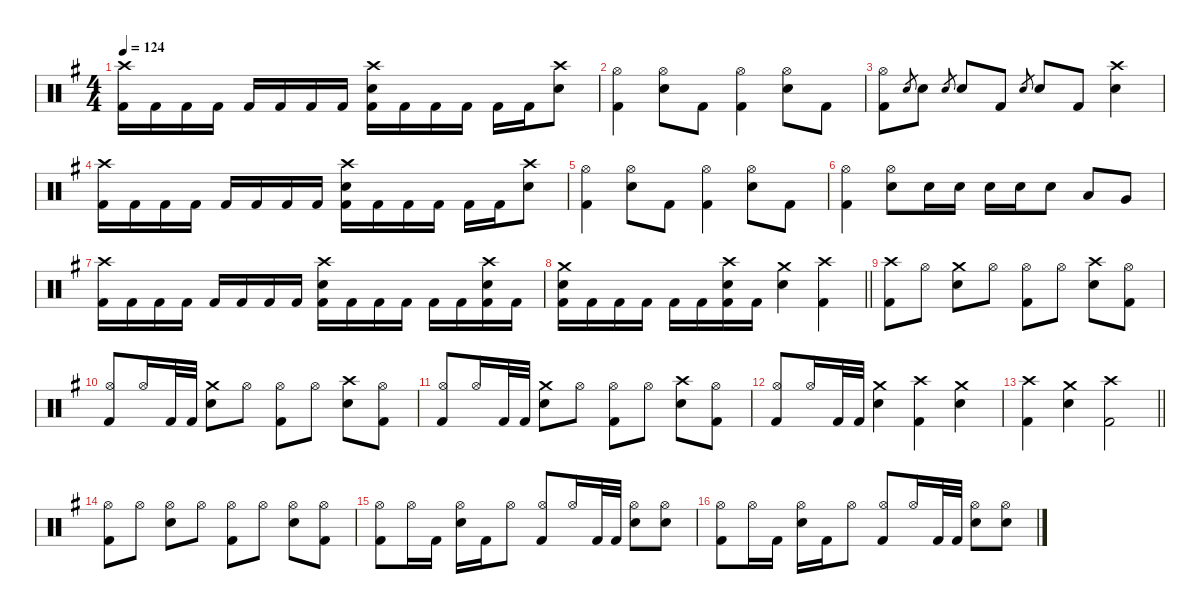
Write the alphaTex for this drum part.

\defaultSystemsLayout 4
\hideDynamics
\bracketExtendMode nobrackets
\singleTrackTrackNamePolicy hidden
\multiTrackTrackNamePolicy hidden
\otherSystemsTrackNameOrientation horizontal
\track ("Drums" "drm.") {defaultSystemsLayout 4 instrument percussion}
\staff {score}
\articulation defaults
\ts (4 4)
\tempo 124
\clef neutral
\ks g
("Crash high (hit)"{acc forcenatural} "Kick (hit) 2"{acc forcenatural}).16{dy mf beam Down} "Kick (hit) 2"{acc forcenatural}.16{dy ff beam Down} "Kick (hit) 2"{acc forcenatural}.16{beam Down} "Kick (hit) 2"{acc forcenatural}.16{beam Down} "Kick (hit) 2"{acc forcenatural}.16{beam Up} "Kick (hit) 2"{acc forcenatural}.16{beam Up} "Kick (hit) 2"{acc forcenatural}.16{beam Up} "Kick (hit) 2"{acc forcenatural}.16{beam Up} ("Crash high (hit)"{acc forcenatural} "Snare (hit) 2"{acc forcenatural} "Kick (hit) 2"{acc forcenatural}).16{dy mf beam Down} "Kick (hit) 2"{acc forcenatural}.16{dy ff beam Down} "Kick (hit) 2"{acc forcenatural}.16{beam Down} "Kick (hit) 2"{acc forcenatural}.16{beam Down} "Kick (hit) 2"{acc forcenatural}.16{beam Down} "Kick (hit) 2"{acc forcenatural}.16{beam Down} ("Crash high (hit)"{acc forcenatural} "Snare (hit) 2"{acc forcenatural}).8{dy mf beam Down} |
("Hi-Hat (open)"{acc forcenatural} "Kick (hit) 2"{acc forcenatural}).4{beam Down} ("Hi-Hat (open)"{acc forcenatural} "Snare (hit) 2"{acc forcenatural}).8{beam Down} "Kick (hit) 2"{acc forcenatural}.8{dy ff beam Down} ("Hi-Hat (open)"{acc forcenatural} "Kick (hit) 2"{acc forcenatural}).4{dy mf beam Down} ("Hi-Hat (open)"{acc forcenatural} "Snare (hit) 2"{acc forcenatural}).8{beam Down} "Kick (hit) 2"{acc forcenatural}.8{dy ff beam Down} |
("Hi-Hat (open)"{acc forcenatural} "Kick (hit) 2"{acc forcenatural}).8{dy mf beam Down} "Electric Snare (hit)"{acc forcenatural}.8{gr dy mp beam Up} "Snare (hit) 2"{acc forcenatural}.8{dy ff beam Down} "Electric Snare (hit)"{acc forcenatural}.8{gr dy mp beam Up} "Snare (hit) 2"{acc forcenatural}.8{dy ff beam Up} "Kick (hit) 2"{acc forcenatural}.8{beam Up} "Electric Snare (hit)"{acc forcenatural}.8{gr dy mp beam Up} "Snare (hit) 2"{acc forcenatural}.8{dy ff beam Up} "Kick (hit) 2"{acc forcenatural}.8{beam Up} ("Crash high (hit)"{acc forcenatural} "Snare (hit) 2"{acc forcenatural}).4{dy mp beam Down} |
("Crash high (hit)"{acc forcenatural} "Kick (hit) 2"{acc forcenatural}).16{beam Down} "Kick (hit) 2"{acc forcenatural}.16{dy ff beam Down} "Kick (hit) 2"{acc forcenatural}.16{beam Down} "Kick (hit) 2"{acc forcenatural}.16{beam Down} "Kick (hit) 2"{acc forcenatural}.16{beam Up} "Kick (hit) 2"{acc forcenatural}.16{beam Up} "Kick (hit) 2"{acc forcenatural}.16{beam Up} "Kick (hit) 2"{acc forcenatural}.16{beam Up} ("Crash high (hit)"{acc forcenatural} "Snare (hit) 2"{acc forcenatural} "Kick (hit) 2"{acc forcenatural}).16{dy mf beam Down} "Kick (hit) 2"{acc forcenatural}.16{dy ff beam Down} "Kick (hit) 2"{acc forcenatural}.16{beam Down} "Kick (hit) 2"{acc forcenatural}.16{beam Down} "Kick (hit) 2"{acc forcenatural}.16{beam Down} "Kick (hit) 2"{acc forcenatural}.16{beam Down} ("Crash high (hit)"{acc forcenatural} "Snare (hit) 2"{acc forcenatural}).8{dy mf beam Down} |
("Hi-Hat (open)"{acc forcenatural} "Kick (hit) 2"{acc forcenatural}).4{beam Down} ("Hi-Hat (open)"{acc forcenatural} "Snare (hit) 2"{acc forcenatural}).8{beam Down} "Kick (hit) 2"{acc forcenatural}.8{dy ff beam Down} ("Hi-Hat (open)"{acc forcenatural} "Kick (hit) 2"{acc forcenatural}).4{dy mf beam Down} ("Hi-Hat (open)"{acc forcenatural} "Snare (hit) 2"{acc forcenatural}).8{beam Down} "Kick (hit) 2"{acc forcenatural}.8{dy ff beam Down} |
("Hi-Hat (open)"{acc forcenatural} "Kick (hit) 2"{acc forcenatural}).4{dy mf beam Down} ("Hi-Hat (open)"{acc forcenatural} "Snare (hit) 2"{acc forcenatural}).8{beam Down} "Snare (hit) 2"{acc forcenatural}.16{dy p beam Down} "Snare (hit) 2"{acc forcenatural}.16{dy mp beam Down} "Snare (hit) 2"{acc forcenatural}.16{dy mf beam Down} "Snare (hit) 2"{acc forcenatural}.16{dy f beam Down} "Snare (hit) 2"{acc forcenatural}.8{dy ff beam Down} "Low Tom (hit)"{acc forcenatural}.8{dy f beam Up} "Very Low Tom (hit)"{acc forcenatural}.8{beam Up} |
("Crash high (hit)"{acc forcenatural} "Kick (hit) 2"{acc forcenatural}).16{dy mf beam Down} "Kick (hit) 2"{acc forcenatural}.16{dy ff beam Down} "Kick (hit) 2"{acc forcenatural}.16{beam Down} "Kick (hit) 2"{acc forcenatural}.16{beam Down} "Kick (hit) 2"{acc forcenatural}.16{beam Up} "Kick (hit) 2"{acc forcenatural}.16{beam Up} "Kick (hit) 2"{acc forcenatural}.16{beam Up} "Kick (hit) 2"{acc forcenatural}.16{beam Up} ("Crash high (hit)"{acc forcenatural} "Snare (hit) 2"{acc forcenatural} "Kick (hit) 2"{acc forcenatural}).16{dy mf beam Down} "Kick (hit) 2"{acc forcenatural}.16{dy ff beam Down} "Kick (hit) 2"{acc forcenatural}.16{beam Down} "Kick (hit) 2"{acc forcenatural}.16{beam Down} "Kick (hit) 2"{acc forcenatural}.16{beam Down} "Kick (hit) 2"{acc forcenatural}.16{beam Down} ("Crash high (hit)"{acc forcenatural} "Snare (hit) 2"{acc forcenatural} "Kick (hit) 2"{acc forcenatural}).16{dy mf beam Down} "Kick (hit) 2"{acc forcenatural}.16{dy ff beam Down} |
\barLineRight lightlight
("Crash medium (hit)"{acc forcenatural} "Snare (hit) 2"{acc forcenatural} "Kick (hit) 2"{acc forcenatural}).16{dy mf beam Down} "Kick (hit) 2"{acc forcenatural}.16{dy ff beam Down} "Kick (hit) 2"{acc forcenatural}.16{beam Down} "Kick (hit) 2"{acc forcenatural}.16{beam Down} "Kick (hit) 2"{acc forcenatural}.16{beam Down} "Kick (hit) 2"{acc forcenatural}.16{beam Down} ("Crash high (hit)"{acc forcenatural} "Snare (hit) 2"{acc forcenatural} "Kick (hit) 2"{acc forcenatural}).16{dy mf beam Down} "Kick (hit) 2"{acc forcenatural}.16{dy ff beam Down} ("Crash medium (hit)"{acc forcenatural} "Snare (hit) 2"{acc forcenatural}).4{dy mf beam Down} ("Crash high (hit)"{acc forcenatural} "Kick (hit) 2"{acc forcenatural}).4{beam Down} |
("Crash high (hit)"{acc forcenatural} "Kick (hit) 2"{acc forcenatural}).8{beam Down} "Hi-Hat (open)"{acc forcenatural}.8{beam Down} ("Crash medium (hit)"{acc forcenatural} "Snare (hit) 2"{acc forcenatural}).8{beam Down} "Hi-Hat (open)"{acc forcenatural}.8{beam Down} ("Hi-Hat (open)"{acc forcenatural} "Kick (hit) 2"{acc forcenatural}).8{beam Down} "Hi-Hat (open)"{acc forcenatural}.8{beam Down} ("Crash high (hit)"{acc forcenatural} "Snare (hit) 2"{acc forcenatural}).8{beam Down} ("Hi-Hat (open)"{acc forcenatural} "Kick (hit) 2"{acc forcenatural}).8{beam Down} |
("Hi-Hat (open)"{acc forcenatural} "Kick (hit) 2"{acc forcenatural}).8{beam Up} "Hi-Hat (open)"{acc forcenatural}.16{beam Up} "Kick (hit) 2"{acc forcenatural}.32{dy ff beam Up} "Kick (hit) 2"{acc forcenatural}.32{beam Up} ("Crash medium (hit)"{acc forcenatural} "Snare (hit) 2"{acc forcenatural}).8{dy mf beam Down} "Hi-Hat (open)"{acc forcenatural}.8{beam Down} ("Hi-Hat (open)"{acc forcenatural} "Kick (hit) 2"{acc forcenatural}).8{beam Down} "Hi-Hat (open)"{acc forcenatural}.8{beam Down} ("Crash high (hit)"{acc forcenatural} "Snare (hit) 2"{acc forcenatural}).8{beam Down} ("Hi-Hat (open)"{acc forcenatural} "Kick (hit) 2"{acc forcenatural}).8{beam Down} |
("Hi-Hat (open)"{acc forcenatural} "Kick (hit) 2"{acc forcenatural}).8{beam Up} "Hi-Hat (open)"{acc forcenatural}.16{beam Up} "Kick (hit) 2"{acc forcenatural}.32{dy ff beam Up} "Kick (hit) 2"{acc forcenatural}.32{beam Up} ("Crash medium (hit)"{acc forcenatural} "Snare (hit) 2"{acc forcenatural}).8{dy mf beam Down} "Hi-Hat (open)"{acc forcenatural}.8{beam Down} ("Hi-Hat (open)"{acc forcenatural} "Kick (hit) 2"{acc forcenatural}).8{beam Down} "Hi-Hat (open)"{acc forcenatural}.8{beam Down} ("Crash high (hit)"{acc forcenatural} "Snare (hit) 2"{acc forcenatural}).8{beam Down} ("Hi-Hat (open)"{acc forcenatural} "Kick (hit) 2"{acc forcenatural}).8{beam Down} |
("Hi-Hat (open)"{acc forcenatural} "Kick (hit) 2"{acc forcenatural}).8{beam Up} "Hi-Hat (open)"{acc forcenatural}.16{beam Up} "Kick (hit) 2"{acc forcenatural}.32{dy ff beam Up} "Kick (hit) 2"{acc forcenatural}.32{beam Up} ("Crash medium (hit)"{acc forcenatural} "Snare (hit) 2"{acc forcenatural}).4{dy mf beam Down} ("Crash high (hit)"{acc forcenatural} "Kick (hit) 2"{acc forcenatural}).4{beam Down} ("Crash medium (hit)"{acc forcenatural} "Snare (hit) 2"{acc forcenatural}).4{beam Down} |
\barLineRight lightlight
("Crash high (hit)"{acc forcenatural} "Kick (hit) 2"{acc forcenatural}).4{beam Down} ("Crash medium (hit)"{acc forcenatural} "Snare (hit) 2"{acc forcenatural}).4{beam Down} ("Crash high (hit)"{acc forcenatural} "Kick (hit) 2"{acc forcenatural}).2{beam Down} |
("Hi-Hat (open)"{acc forcenatural} "Kick (hit) 2"{acc forcenatural}).8{beam Down} "Hi-Hat (open)"{acc forcenatural}.8{beam Down} ("Hi-Hat (open)"{acc forcenatural} "Snare (hit) 2"{acc forcenatural}).8{beam Down} "Hi-Hat (open)"{acc forcenatural}.8{beam Down} ("Hi-Hat (open)"{acc forcenatural} "Kick (hit) 2"{acc forcenatural}).8{beam Down} "Hi-Hat (open)"{acc forcenatural}.8{beam Down} ("Hi-Hat (open)"{acc forcenatural} "Snare (hit) 2"{acc forcenatural}).8{beam Down} ("Hi-Hat (open)"{acc forcenatural} "Kick (hit) 2"{acc forcenatural}).8{beam Down} |
("Hi-Hat (open)"{acc forcenatural} "Kick (hit) 2"{acc forcenatural}).8{beam Down} "Hi-Hat (open)"{acc forcenatural}.16{beam Down} "Kick (hit) 2"{acc forcenatural}.16{dy ff beam Down} ("Hi-Hat (open)"{acc forcenatural} "Snare (hit) 2"{acc forcenatural}).16{dy mf beam Down} "Kick (hit) 2"{acc forcenatural}.16{dy ff beam Down} "Hi-Hat (open)"{acc forcenatural}.8{dy mf beam Down} ("Hi-Hat (open)"{acc forcenatural} "Kick (hit) 2"{acc forcenatural}).8{beam Up} "Hi-Hat (open)"{acc forcenatural}.16{beam Up} "Kick (hit) 2"{acc forcenatural}.32{dy ff beam Up} "Kick (hit) 2"{acc forcenatural}.32{beam Up} ("Hi-Hat (open)"{acc forcenatural} "Snare (hit) 2"{acc forcenatural}).8{dy mf beam Down} ("Hi-Hat (open)"{acc forcenatural} "Snare (hit) 2"{acc forcenatural}).8{beam Down} |
("Hi-Hat (open)"{acc forcenatural} "Kick (hit) 2"{acc forcenatural}).8{beam Down} "Hi-Hat (open)"{acc forcenatural}.16{beam Down} "Kick (hit) 2"{acc forcenatural}.16{dy ff beam Down} ("Hi-Hat (open)"{acc forcenatural} "Snare (hit) 2"{acc forcenatural}).16{dy mf beam Down} "Kick (hit) 2"{acc forcenatural}.16{dy ff beam Down} "Hi-Hat (open)"{acc forcenatural}.8{dy mf beam Down} ("Hi-Hat (open)"{acc forcenatural} "Kick (hit) 2"{acc forcenatural}).8{beam Up} "Hi-Hat (open)"{acc forcenatural}.16{beam Up} "Kick (hit) 2"{acc forcenatural}.32{dy ff beam Up} "Kick (hit) 2"{acc forcenatural}.32{beam Up} ("Hi-Hat (open)"{acc forcenatural} "Snare (hit) 2"{acc forcenatural}).8{dy mf beam Down} ("Hi-Hat (open)"{acc forcenatural} "Snare (hit) 2"{acc forcenatural}).8{beam Down}
